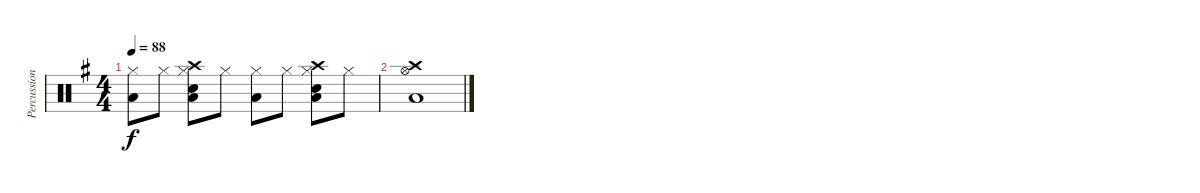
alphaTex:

\track ("Percussions" "Percussion") {instrument percussion}
\staff {score}
\articulation defaults
\ts (4 4)
\tempo 88
\clef neutral
\ks g
("Hi-Hat (closed)" "Low Floor Tom (hit)").8{dy f} "Hi-Hat (closed)".8 ("Snare (hit) 2" "Low Floor Tom (hit)" "Hi-Hat (closed)" "Crash high (hit)").8 "Hi-Hat (closed)".8 ("Hi-Hat (closed)" "Low Floor Tom (hit)").8 "Hi-Hat (closed)".8 ("Snare (hit) 2" "Low Floor Tom (hit)" "Hi-Hat (closed)" "Crash high (hit)").8 "Hi-Hat (closed)".8 |
("Hi-Hat (open)" "Crash high (hit)" "Low Floor Tom (hit)").1
